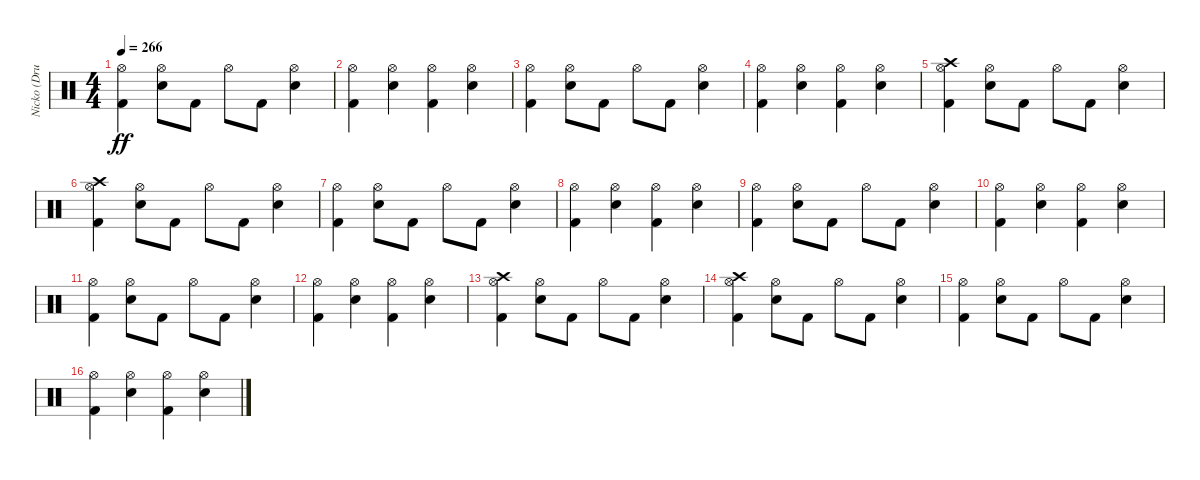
\track ("Nicko (Drums)" "Nicko (Dru") {instrument percussion}
\staff {score}
\articulation defaults
\ts (4 4)
\tempo 266
\clef neutral
\ks c
("Kick (hit) 2" "Hi-Hat (open)").4{dy ff} ("Snare (hit) 2" "Hi-Hat (open)").8 "Kick (hit) 2".8 "Hi-Hat (open)".8 "Kick (hit) 2".8 ("Snare (hit) 2" "Hi-Hat (open)").4 |
("Kick (hit) 2" "Hi-Hat (open)").4 ("Snare (hit) 2" "Hi-Hat (open)").4 ("Kick (hit) 2" "Hi-Hat (open)").4 ("Snare (hit) 2" "Hi-Hat (open)").4 |
("Kick (hit) 2" "Hi-Hat (open)").4 ("Snare (hit) 2" "Hi-Hat (open)").8 "Kick (hit) 2".8 "Hi-Hat (open)".8 "Kick (hit) 2".8 ("Snare (hit) 2" "Hi-Hat (open)").4 |
("Kick (hit) 2" "Hi-Hat (open)").4 ("Snare (hit) 2" "Hi-Hat (open)").4 ("Kick (hit) 2" "Hi-Hat (open)").4 ("Snare (hit) 2" "Hi-Hat (open)").4 |
("Kick (hit) 2" "Hi-Hat (open)" "Crash high (hit)").4 ("Snare (hit) 2" "Hi-Hat (open)").8 "Kick (hit) 2".8 "Hi-Hat (open)".8 "Kick (hit) 2".8 ("Snare (hit) 2" "Hi-Hat (open)").4 |
("Kick (hit) 2" "Hi-Hat (open)" "Crash high (hit)").4 ("Snare (hit) 2" "Hi-Hat (open)").8 "Kick (hit) 2".8 "Hi-Hat (open)".8 "Kick (hit) 2".8 ("Snare (hit) 2" "Hi-Hat (open)").4 |
("Kick (hit) 2" "Hi-Hat (open)").4 ("Snare (hit) 2" "Hi-Hat (open)").8 "Kick (hit) 2".8 "Hi-Hat (open)".8 "Kick (hit) 2".8 ("Snare (hit) 2" "Hi-Hat (open)").4 |
("Kick (hit) 2" "Hi-Hat (open)").4 ("Snare (hit) 2" "Hi-Hat (open)").4 ("Kick (hit) 2" "Hi-Hat (open)").4 ("Snare (hit) 2" "Hi-Hat (open)").4 |
("Kick (hit) 2" "Hi-Hat (open)").4 ("Snare (hit) 2" "Hi-Hat (open)").8 "Kick (hit) 2".8 "Hi-Hat (open)".8 "Kick (hit) 2".8 ("Snare (hit) 2" "Hi-Hat (open)").4 |
("Kick (hit) 2" "Hi-Hat (open)").4 ("Snare (hit) 2" "Hi-Hat (open)").4 ("Kick (hit) 2" "Hi-Hat (open)").4 ("Snare (hit) 2" "Hi-Hat (open)").4 |
("Kick (hit) 2" "Hi-Hat (open)").4 ("Snare (hit) 2" "Hi-Hat (open)").8 "Kick (hit) 2".8 "Hi-Hat (open)".8 "Kick (hit) 2".8 ("Snare (hit) 2" "Hi-Hat (open)").4 |
("Kick (hit) 2" "Hi-Hat (open)").4 ("Snare (hit) 2" "Hi-Hat (open)").4 ("Kick (hit) 2" "Hi-Hat (open)").4 ("Snare (hit) 2" "Hi-Hat (open)").4 |
("Kick (hit) 2" "Hi-Hat (open)" "Crash high (hit)").4 ("Snare (hit) 2" "Hi-Hat (open)").8 "Kick (hit) 2".8 "Hi-Hat (open)".8 "Kick (hit) 2".8 ("Snare (hit) 2" "Hi-Hat (open)").4 |
("Kick (hit) 2" "Hi-Hat (open)" "Crash high (hit)").4 ("Snare (hit) 2" "Hi-Hat (open)").8 "Kick (hit) 2".8 "Hi-Hat (open)".8 "Kick (hit) 2".8 ("Snare (hit) 2" "Hi-Hat (open)").4 |
("Kick (hit) 2" "Hi-Hat (open)").4 ("Snare (hit) 2" "Hi-Hat (open)").8 "Kick (hit) 2".8 "Hi-Hat (open)".8 "Kick (hit) 2".8 ("Snare (hit) 2" "Hi-Hat (open)").4 |
("Kick (hit) 2" "Hi-Hat (open)").4 ("Snare (hit) 2" "Hi-Hat (open)").4 ("Kick (hit) 2" "Hi-Hat (open)").4 ("Snare (hit) 2" "Hi-Hat (open)").4
